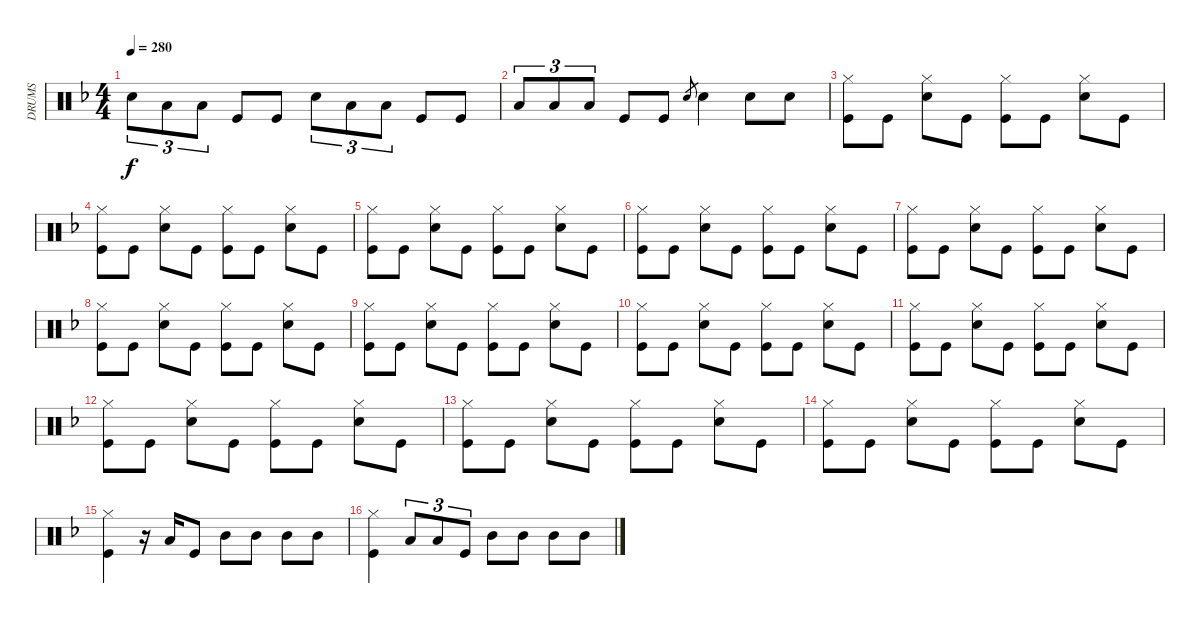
\track ("DRUMS" "DRUMS") {instrument percussion}
\staff {score}
\articulation defaults
\ts (4 4)
\tempo 280
\clef neutral
\ks dminor "Snare (hit) 2".8{tu (3 2) dy f} "Low Tom (hit)".8{tu (3 2)} "Low Tom (hit)".8{tu (3 2)} "Kick (hit)".8 "Kick (hit)".8 "Snare (hit) 2".8{tu (3 2)} "Low Tom (hit)".8{tu (3 2)} "Low Tom (hit)".8{tu (3 2)} "Kick (hit)".8 "Kick (hit)".8
|
"Low Tom (hit)".8{tu (3 2)} "Low Tom (hit)".8{tu (3 2)} "Low Tom (hit)".8{tu (3 2)} "Kick (hit)".8 "Kick (hit)".8 "Snare (hit) 2".8{gr} "Snare (hit) 2".4 "Snare (hit) 2".8 "Snare (hit) 2".8 |
("Hi-Hat (closed)" "Kick (hit)").8 "Kick (hit)".8 ("Hi-Hat (closed)" "Snare (hit) 2").8 "Kick (hit)".8 ("Hi-Hat (closed)" "Kick (hit)").8 "Kick (hit)".8 ("Hi-Hat (closed)" "Snare (hit) 2").8 "Kick (hit)".8 |
("Hi-Hat (closed)" "Kick (hit)").8 "Kick (hit)".8 ("Hi-Hat (closed)" "Snare (hit) 2").8 "Kick (hit)".8 ("Hi-Hat (closed)" "Kick (hit)").8 "Kick (hit)".8 ("Hi-Hat (closed)" "Snare (hit) 2").8 "Kick (hit)".8 |
("Hi-Hat (closed)" "Kick (hit)").8 "Kick (hit)".8 ("Hi-Hat (closed)" "Snare (hit) 2").8 "Kick (hit)".8 ("Hi-Hat (closed)" "Kick (hit)").8 "Kick (hit)".8 ("Hi-Hat (closed)" "Snare (hit) 2").8 "Kick (hit)".8 |
("Hi-Hat (closed)" "Kick (hit)").8 "Kick (hit)".8 ("Hi-Hat (closed)" "Snare (hit) 2").8 "Kick (hit)".8 ("Hi-Hat (closed)" "Kick (hit)").8 "Kick (hit)".8 ("Hi-Hat (closed)" "Snare (hit) 2").8 "Kick (hit)".8 |
("Hi-Hat (closed)" "Kick (hit)").8 "Kick (hit)".8 ("Hi-Hat (closed)" "Snare (hit) 2").8 "Kick (hit)".8 ("Hi-Hat (closed)" "Kick (hit)").8 "Kick (hit)".8 ("Hi-Hat (closed)" "Snare (hit) 2").8 "Kick (hit)".8 |
("Hi-Hat (closed)" "Kick (hit)").8 "Kick (hit)".8 ("Hi-Hat (closed)" "Snare (hit) 2").8 "Kick (hit)".8 ("Hi-Hat (closed)" "Kick (hit)").8 "Kick (hit)".8 ("Hi-Hat (closed)" "Snare (hit) 2").8 "Kick (hit)".8 |
("Hi-Hat (closed)" "Kick (hit)").8 "Kick (hit)".8 ("Hi-Hat (closed)" "Snare (hit) 2").8 "Kick (hit)".8 ("Hi-Hat (closed)" "Kick (hit)").8 "Kick (hit)".8 ("Hi-Hat (closed)" "Snare (hit) 2").8 "Kick (hit)".8 |
("Hi-Hat (closed)" "Kick (hit)").8 "Kick (hit)".8 ("Hi-Hat (closed)" "Snare (hit) 2").8 "Kick (hit)".8 ("Hi-Hat (closed)" "Kick (hit)").8 "Kick (hit)".8 ("Hi-Hat (closed)" "Snare (hit) 2").8 "Kick (hit)".8 |
("Hi-Hat (closed)" "Kick (hit)").8 "Kick (hit)".8 ("Hi-Hat (closed)" "Snare (hit) 2").8 "Kick (hit)".8 ("Hi-Hat (closed)" "Kick (hit)").8 "Kick (hit)".8 ("Hi-Hat (closed)" "Snare (hit) 2").8 "Kick (hit)".8 |
("Hi-Hat (closed)" "Kick (hit)").8 "Kick (hit)".8 ("Hi-Hat (closed)" "Snare (hit) 2").8 "Kick (hit)".8 ("Hi-Hat (closed)" "Kick (hit)").8 "Kick (hit)".8 ("Hi-Hat (closed)" "Snare (hit) 2").8 "Kick (hit)".8 |
("Hi-Hat (closed)" "Kick (hit)").8 "Kick (hit)".8 ("Hi-Hat (closed)" "Snare (hit) 2").8 "Kick (hit)".8 ("Hi-Hat (closed)" "Kick (hit)").8 "Kick (hit)".8 ("Hi-Hat (closed)" "Snare (hit) 2").8 "Kick (hit)".8 |
("Hi-Hat (closed)" "Kick (hit)").8 "Kick (hit)".8 ("Hi-Hat (closed)" "Snare (hit) 2").8 "Kick (hit)".8 ("Hi-Hat (closed)" "Kick (hit)").8 "Kick (hit)".8 ("Hi-Hat (closed)" "Snare (hit) 2").8 "Kick (hit)".8 |
("Hi-Hat (closed)" "Kick (hit)").4 r.16 "Low Tom (hit)".16 "Kick (hit)".8 "Mid Tom (hit)".8 "Mid Tom (hit)".8 "Mid Tom (hit)".8 "Mid Tom (hit)".8 |
("Hi-Hat (closed)" "Kick (hit)").4 "Low Tom (hit)".8{tu (3 2)} "Low Tom (hit)".8{tu (3 2)} "Kick (hit)".8{tu (3 2)} "Mid Tom (hit)".8 "Mid Tom (hit)".8 "Mid Tom (hit)".8 "Mid Tom (hit)".8
